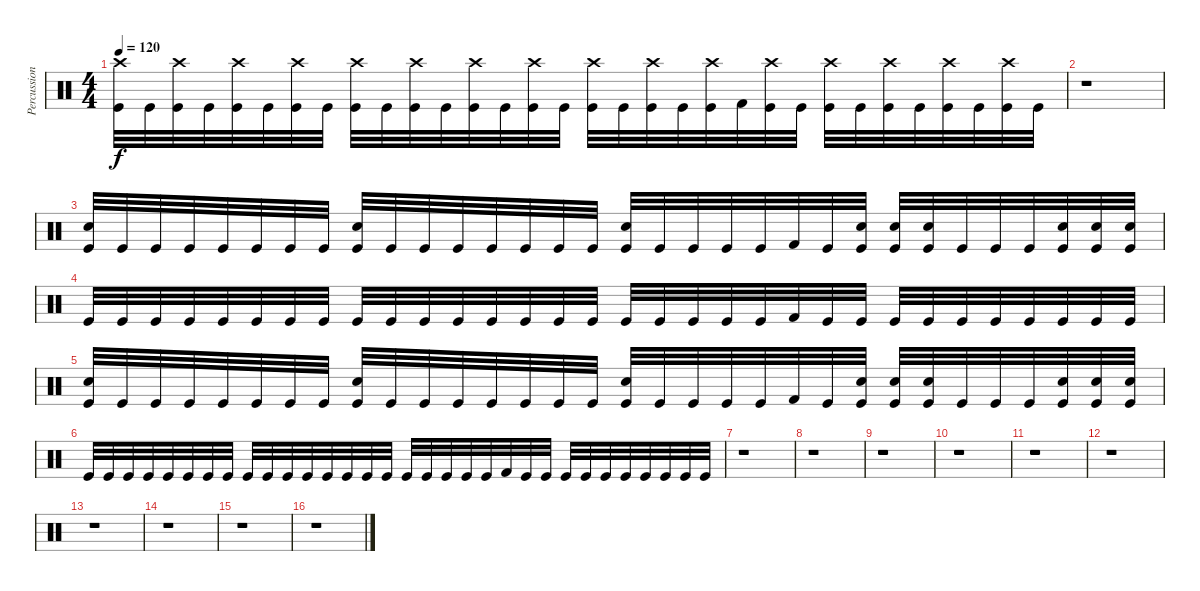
\track ("Percussion" "Percussion") {instrument percussion}
\staff {score}
\articulation defaults
\ts (4 4)
\tempo 120
\clef neutral
\ks c
("Kick (hit)" "Crash high (hit)").32{dy f} "Kick (hit)".32 ("Kick (hit)" "Crash high (hit)").32 "Kick (hit)".32 ("Kick (hit)" "Crash high (hit)").32 "Kick (hit)".32 ("Kick (hit)" "Crash high (hit)").32 "Kick (hit)".32 ("Kick (hit)" "Crash high (hit)").32 "Kick (hit)".32 ("Kick (hit)" "Crash high (hit)").32 "Kick (hit)".32 ("Kick (hit)" "Crash high (hit)").32 "Kick (hit)".32 ("Kick (hit)" "Crash high (hit)").32 "Kick (hit)".32 ("Kick (hit)" "Crash high (hit)").32 "Kick (hit)".32 ("Kick (hit)" "Crash high (hit)").32 "Kick (hit)".32 ("Kick (hit)" "Crash high (hit)").32 "Kick (hit) 2".32 ("Kick (hit)" "Crash high (hit)").32 "Kick (hit)".32 ("Kick (hit)" "Crash high (hit)").32 "Kick (hit)".32 ("Kick (hit)" "Crash high (hit)").32 "Kick (hit)".32 ("Kick (hit)" "Crash high (hit)").32 "Kick (hit)".32 ("Kick (hit)" "Crash high (hit)").32 "Kick (hit)".32 |
r.1 |
("Kick (hit)" "Snare (hit) 2").32 "Kick (hit)".32 "Kick (hit)".32 "Kick (hit)".32 "Kick (hit)".32 "Kick (hit)".32 "Kick (hit)".32 "Kick (hit)".32 ("Kick (hit)" "Snare (hit) 2").32 "Kick (hit)".32 "Kick (hit)".32 "Kick (hit)".32 "Kick (hit)".32 "Kick (hit)".32 "Kick (hit)".32 "Kick (hit)".32 ("Kick (hit)" "Snare (hit) 2").32 "Kick (hit)".32 "Kick (hit)".32 "Kick (hit)".32 "Kick (hit)".32 "Kick (hit) 2".32 "Kick (hit)".32 ("Kick (hit)" "Snare (hit) 2").32 ("Kick (hit)" "Snare (hit) 2").32 ("Kick (hit)" "Snare (hit) 2").32 "Kick (hit)".32 "Kick (hit)".32 "Kick (hit)".32 ("Kick (hit)" "Snare (hit) 2").32 ("Kick (hit)" "Snare (hit) 2").32 ("Kick (hit)" "Snare (hit) 2").32 |
"Kick (hit)".32 "Kick (hit)".32 "Kick (hit)".32 "Kick (hit)".32 "Kick (hit)".32 "Kick (hit)".32 "Kick (hit)".32 "Kick (hit)".32 "Kick (hit)".32 "Kick (hit)".32 "Kick (hit)".32 "Kick (hit)".32 "Kick (hit)".32 "Kick (hit)".32 "Kick (hit)".32 "Kick (hit)".32 "Kick (hit)".32 "Kick (hit)".32 "Kick (hit)".32 "Kick (hit)".32 "Kick (hit)".32 "Kick (hit) 2".32 "Kick (hit)".32 "Kick (hit)".32 "Kick (hit)".32 "Kick (hit)".32 "Kick (hit)".32 "Kick (hit)".32 "Kick (hit)".32 "Kick (hit)".32 "Kick (hit)".32 "Kick (hit)".32 |
("Kick (hit)" "Snare (hit) 2").32 "Kick (hit)".32 "Kick (hit)".32 "Kick (hit)".32 "Kick (hit)".32 "Kick (hit)".32 "Kick (hit)".32 "Kick (hit)".32 ("Kick (hit)" "Snare (hit) 2").32 "Kick (hit)".32 "Kick (hit)".32 "Kick (hit)".32 "Kick (hit)".32 "Kick (hit)".32 "Kick (hit)".32 "Kick (hit)".32 ("Kick (hit)" "Snare (hit) 2").32 "Kick (hit)".32 "Kick (hit)".32 "Kick (hit)".32 "Kick (hit)".32 "Kick (hit) 2".32 "Kick (hit)".32 ("Kick (hit)" "Snare (hit) 2").32 ("Kick (hit)" "Snare (hit) 2").32 ("Kick (hit)" "Snare (hit) 2").32 "Kick (hit)".32 "Kick (hit)".32 "Kick (hit)".32 ("Kick (hit)" "Snare (hit) 2").32 ("Kick (hit)" "Snare (hit) 2").32 ("Kick (hit)" "Snare (hit) 2").32 |
"Kick (hit)".32 "Kick (hit)".32 "Kick (hit)".32 "Kick (hit)".32 "Kick (hit)".32 "Kick (hit)".32 "Kick (hit)".32 "Kick (hit)".32 "Kick (hit)".32 "Kick (hit)".32 "Kick (hit)".32 "Kick (hit)".32 "Kick (hit)".32 "Kick (hit)".32 "Kick (hit)".32 "Kick (hit)".32 "Kick (hit)".32 "Kick (hit)".32 "Kick (hit)".32 "Kick (hit)".32 "Kick (hit)".32 "Kick (hit) 2".32 "Kick (hit)".32 "Kick (hit)".32 "Kick (hit)".32 "Kick (hit)".32 "Kick (hit)".32 "Kick (hit)".32 "Kick (hit)".32 "Kick (hit)".32 "Kick (hit)".32 "Kick (hit)".32 |
r.1 |
r.1 |
r.1 |
r.1 |
r.1 |
r.1 |
r.1 |
r.1 |
r.1 |
r.1
